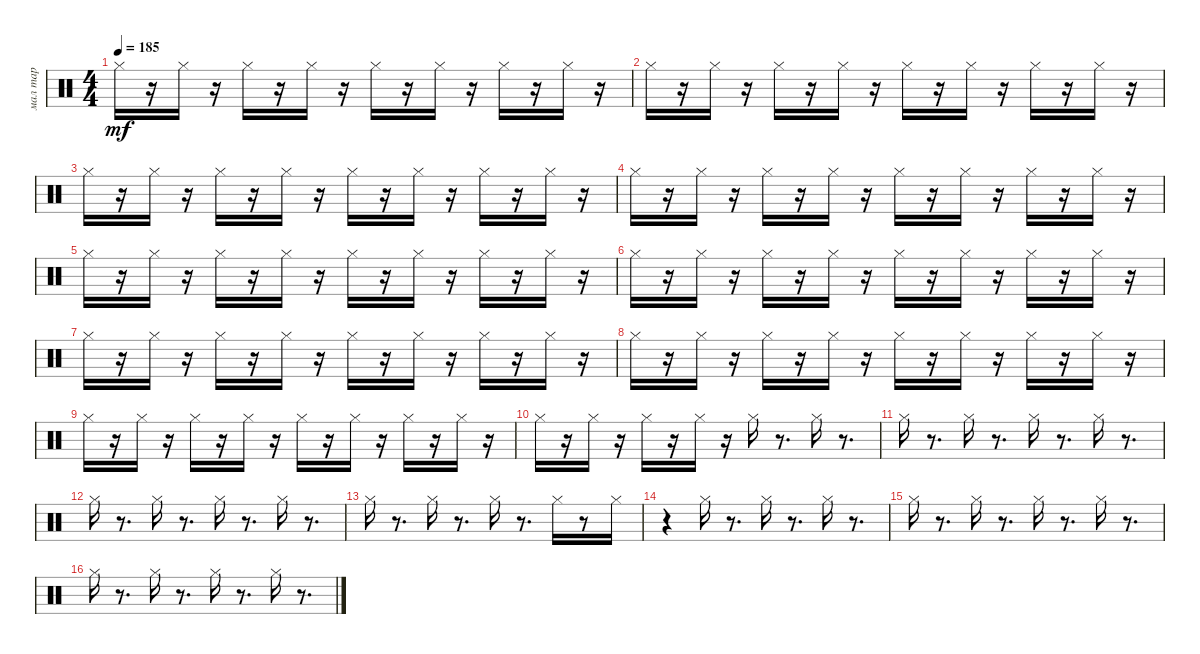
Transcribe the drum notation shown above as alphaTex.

\track ("мал тар" "мал тар") {instrument percussion}
\staff {score}
\articulation defaults
\ts (4 4)
\tempo 185
\clef neutral
\ks c "Hi-Hat (closed)".16{dy mf}
r.16 "Hi-Hat (closed)".16 r.16 "Hi-Hat (closed)".16 r.16 "Hi-Hat (closed)".16 r.16 "Hi-Hat (closed)".16 r.16 "Hi-Hat (closed)".16 r.16 "Hi-Hat (closed)".16 r.16 "Hi-Hat (closed)".16 r.16 |
"Hi-Hat (closed)".16 r.16 "Hi-Hat (closed)".16 r.16 "Hi-Hat (closed)".16 r.16 "Hi-Hat (closed)".16 r.16 "Hi-Hat (closed)".16 r.16 "Hi-Hat (closed)".16 r.16 "Hi-Hat (closed)".16 r.16 "Hi-Hat (closed)".16 r.16 |
"Hi-Hat (closed)".16 r.16 "Hi-Hat (closed)".16 r.16 "Hi-Hat (closed)".16 r.16 "Hi-Hat (closed)".16 r.16 "Hi-Hat (closed)".16 r.16 "Hi-Hat (closed)".16 r.16 "Hi-Hat (closed)".16 r.16 "Hi-Hat (closed)".16 r.16 |
"Hi-Hat (closed)".16 r.16 "Hi-Hat (closed)".16 r.16 "Hi-Hat (closed)".16 r.16 "Hi-Hat (closed)".16 r.16 "Hi-Hat (closed)".16 r.16 "Hi-Hat (closed)".16 r.16 "Hi-Hat (closed)".16 r.16 "Hi-Hat (closed)".16 r.16 |
"Hi-Hat (closed)".16 r.16 "Hi-Hat (closed)".16 r.16 "Hi-Hat (closed)".16 r.16 "Hi-Hat (closed)".16 r.16 "Hi-Hat (closed)".16 r.16 "Hi-Hat (closed)".16 r.16 "Hi-Hat (closed)".16 r.16 "Hi-Hat (closed)".16 r.16 |
"Hi-Hat (closed)".16 r.16 "Hi-Hat (closed)".16 r.16 "Hi-Hat (closed)".16 r.16 "Hi-Hat (closed)".16 r.16 "Hi-Hat (closed)".16 r.16 "Hi-Hat (closed)".16 r.16 "Hi-Hat (closed)".16 r.16 "Hi-Hat (closed)".16 r.16 |
"Hi-Hat (closed)".16 r.16 "Hi-Hat (closed)".16 r.16 "Hi-Hat (closed)".16 r.16 "Hi-Hat (closed)".16 r.16 "Hi-Hat (closed)".16 r.16 "Hi-Hat (closed)".16 r.16 "Hi-Hat (closed)".16 r.16 "Hi-Hat (closed)".16 r.16 |
"Hi-Hat (closed)".16 r.16 "Hi-Hat (closed)".16 r.16 "Hi-Hat (closed)".16 r.16 "Hi-Hat (closed)".16 r.16 "Hi-Hat (closed)".16 r.16 "Hi-Hat (closed)".16 r.16 "Hi-Hat (closed)".16 r.16 "Hi-Hat (closed)".16 r.16 |
"Hi-Hat (closed)".16 r.16 "Hi-Hat (closed)".16 r.16 "Hi-Hat (closed)".16 r.16 "Hi-Hat (closed)".16 r.16 "Hi-Hat (closed)".16 r.16 "Hi-Hat (closed)".16 r.16 "Hi-Hat (closed)".16 r.16 "Hi-Hat (closed)".16 r.16 |
"Hi-Hat (closed)".16 r.16 "Hi-Hat (closed)".16 r.16 "Hi-Hat (closed)".16 r.16 "Hi-Hat (closed)".16 r.16 "Hi-Hat (closed)".16 r.8{d} "Hi-Hat (closed)".16 r.8{d} |
"Hi-Hat (closed)".16 r.8{d} "Hi-Hat (closed)".16 r.8{d} "Hi-Hat (closed)".16 r.8{d} "Hi-Hat (closed)".16 r.8{d} |
"Hi-Hat (closed)".16 r.8{d} "Hi-Hat (closed)".16 r.8{d} "Hi-Hat (closed)".16 r.8{d} "Hi-Hat (closed)".16 r.8{d} |
"Hi-Hat (closed)".16 r.8{d} "Hi-Hat (closed)".16 r.8{d} "Hi-Hat (closed)".16 r.8{d} "Hi-Hat (closed)".16 r.8 "Hi-Hat (closed)".16 |
r.4 "Hi-Hat (closed)".16 r.8{d} "Hi-Hat (closed)".16 r.8{d} "Hi-Hat (closed)".16 r.8{d} |
"Hi-Hat (closed)".16 r.8{d} "Hi-Hat (closed)".16 r.8{d} "Hi-Hat (closed)".16 r.8{d} "Hi-Hat (closed)".16 r.8{d} |
"Hi-Hat (closed)".16 r.8{d} "Hi-Hat (closed)".16 r.8{d} "Hi-Hat (closed)".16 r.8{d} "Hi-Hat (closed)".16 r.8{d}
